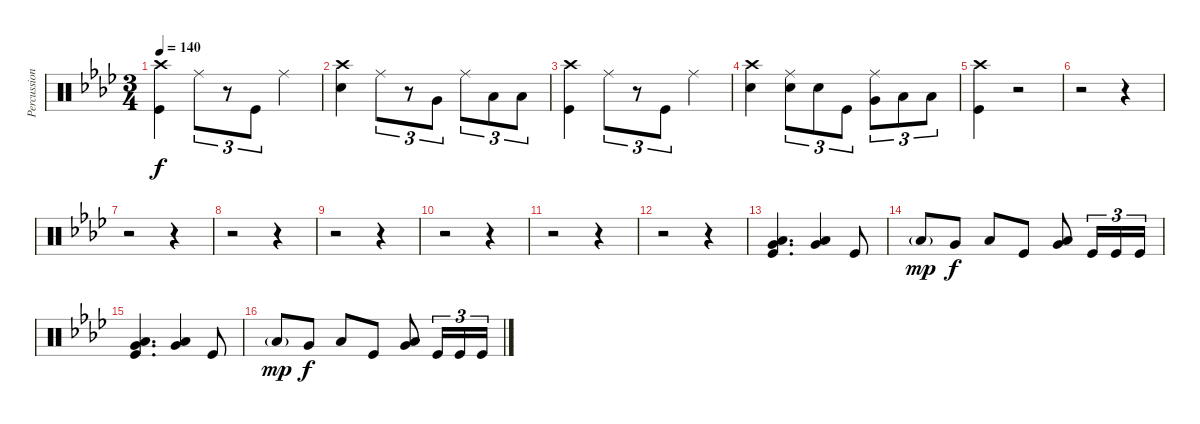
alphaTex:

\track ("Percussion" "Percussion") {instrument percussion}
\staff {score}
\articulation defaults
\ts (3 4)
\tempo 140
\clef neutral
\ks ab
("Kick (hit)" "Crash high (hit)").4{dy f} "Ride (middle)".8{tu (3 2)} r.8{tu (3 2)} "Kick (hit)".8{tu (3 2)} "Ride (middle)".4 |
("Snare (hit) 2" "Crash high (hit)").4 "Ride (middle)".8{tu (3 2)} r.8{tu (3 2)} "Very Low Tom (hit)".8{tu (3 2)} "Ride (middle)".8{tu (3 2)} "Low Floor Tom (hit)".8{tu (3 2)} "Low Floor Tom (hit)".8{tu (3 2)} |
("Kick (hit)" "Crash high (hit)").4 "Ride (middle)".8{tu (3 2)} r.8{tu (3 2)} "Kick (hit)".8{tu (3 2)} "Ride (middle)".4 |
("Snare (hit) 2" "Crash high (hit)").4 ("Ride (middle)" "Snare (hit) 2").8{tu (3 2)} "Snare (hit) 2".8{tu (3 2)} "Kick (hit)".8{tu (3 2)} ("Ride (middle)" "Very Low Tom (hit)").8{tu (3 2)} "Low Floor Tom (hit)".8{tu (3 2)} "Low Floor Tom (hit)".8{tu (3 2)} |
("Kick (hit)" "Crash high (hit)").4 r.2 |
r.2 r.4 |
r.2 r.4 |
r.2 r.4 |
r.2 r.4 |
r.2 r.4 |
r.2 r.4 |
r.2 r.4 |
("Low Floor Tom (hit)" "Very Low Tom (hit)" "Kick (hit)").4{d} ("Low Floor Tom (hit)" "Very Low Tom (hit)").4 "Kick (hit)".8 |
"Low Floor Tom (hit)"{g}.8{dy mp} "Very Low Tom (hit)".8{dy f} "Low Floor Tom (hit)".8 "Kick (hit)".8 ("Very Low Tom (hit)" "Low Floor Tom (hit)").8 "Kick (hit)".16{tu (3 2)} "Kick (hit)".16{tu (3 2)} "Kick (hit)".16{tu (3 2)} |
("Low Floor Tom (hit)" "Very Low Tom (hit)" "Kick (hit)").4{d} ("Low Floor Tom (hit)" "Very Low Tom (hit)").4 "Kick (hit)".8 |
"Low Floor Tom (hit)"{g}.8{dy mp} "Very Low Tom (hit)".8{dy f} "Low Floor Tom (hit)".8 "Kick (hit)".8 ("Very Low Tom (hit)" "Low Floor Tom (hit)").8 "Kick (hit)".16{tu (3 2)} "Kick (hit)".16{tu (3 2)} "Kick (hit)".16{tu (3 2)}
